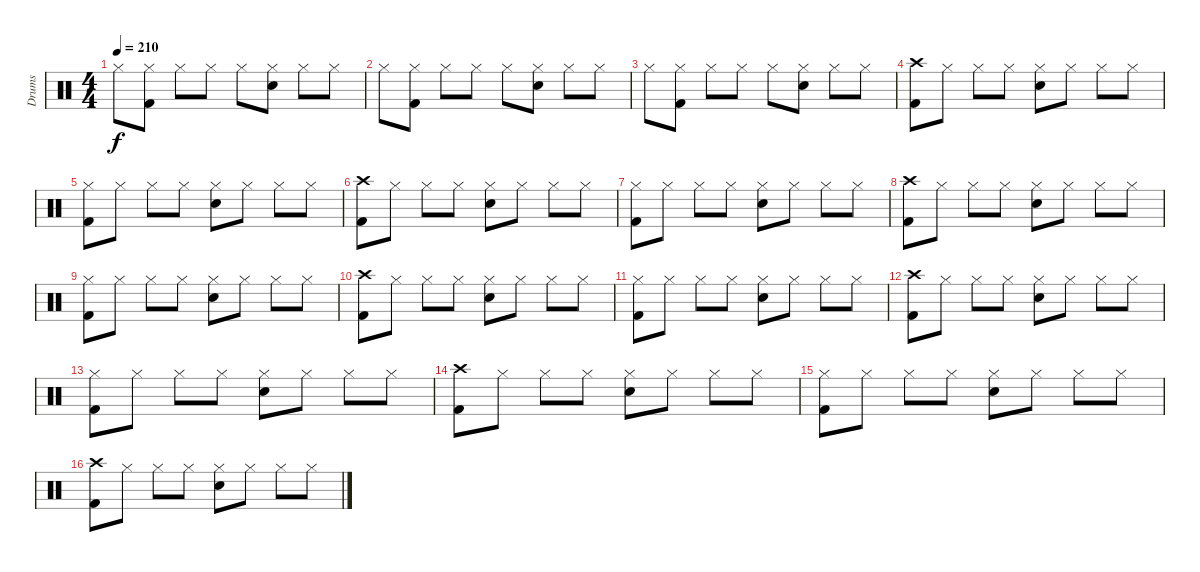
\track ("Drums" "Drums") {instrument percussion}
\staff {score}
\articulation defaults
\ts (4 4)
\tempo 210
\clef neutral
\ks c "Hi-Hat (closed)".8{dy f}
("Hi-Hat (closed)" "Kick (hit) 2").8 "Hi-Hat (closed)".8 "Hi-Hat (closed)".8 "Hi-Hat (closed)".8 ("Hi-Hat (closed)" "Electric Snare (hit)").8 "Hi-Hat (closed)".8 "Hi-Hat (closed)".8 |
"Hi-Hat (closed)".8 ("Hi-Hat (closed)" "Kick (hit) 2").8 "Hi-Hat (closed)".8 "Hi-Hat (closed)".8 "Hi-Hat (closed)".8 ("Hi-Hat (closed)" "Electric Snare (hit)").8 "Hi-Hat (closed)".8 "Hi-Hat (closed)".8 |
"Hi-Hat (closed)".8 ("Hi-Hat (closed)" "Kick (hit) 2").8 "Hi-Hat (closed)".8 "Hi-Hat (closed)".8 "Hi-Hat (closed)".8 ("Hi-Hat (closed)" "Electric Snare (hit)").8 "Hi-Hat (closed)".8 "Hi-Hat (closed)".8 |
("Crash high (hit)" "Kick (hit) 2").8 "Hi-Hat (closed)".8 "Hi-Hat (closed)".8 "Hi-Hat (closed)".8 ("Hi-Hat (closed)" "Electric Snare (hit)").8 "Hi-Hat (closed)".8 "Hi-Hat (closed)".8 "Hi-Hat (closed)".8 |
("Hi-Hat (closed)" "Kick (hit) 2").8 "Hi-Hat (closed)".8 "Hi-Hat (closed)".8 "Hi-Hat (closed)".8 ("Hi-Hat (closed)" "Electric Snare (hit)").8 "Hi-Hat (closed)".8 "Hi-Hat (closed)".8 "Hi-Hat (closed)".8 |
("Crash high (hit)" "Kick (hit) 2").8 "Hi-Hat (closed)".8 "Hi-Hat (closed)".8 "Hi-Hat (closed)".8 ("Hi-Hat (closed)" "Electric Snare (hit)").8 "Hi-Hat (closed)".8 "Hi-Hat (closed)".8 "Hi-Hat (closed)".8 |
("Hi-Hat (closed)" "Kick (hit) 2").8 "Hi-Hat (closed)".8 "Hi-Hat (closed)".8 "Hi-Hat (closed)".8 ("Hi-Hat (closed)" "Electric Snare (hit)").8 "Hi-Hat (closed)".8 "Hi-Hat (closed)".8 "Hi-Hat (closed)".8 |
("Crash high (hit)" "Kick (hit) 2").8 "Hi-Hat (closed)".8 "Hi-Hat (closed)".8 "Hi-Hat (closed)".8 ("Hi-Hat (closed)" "Electric Snare (hit)").8 "Hi-Hat (closed)".8 "Hi-Hat (closed)".8 "Hi-Hat (closed)".8 |
("Hi-Hat (closed)" "Kick (hit) 2").8 "Hi-Hat (closed)".8 "Hi-Hat (closed)".8 "Hi-Hat (closed)".8 ("Hi-Hat (closed)" "Electric Snare (hit)").8 "Hi-Hat (closed)".8 "Hi-Hat (closed)".8 "Hi-Hat (closed)".8 |
("Crash high (hit)" "Kick (hit) 2").8 "Hi-Hat (closed)".8 "Hi-Hat (closed)".8 "Hi-Hat (closed)".8 ("Hi-Hat (closed)" "Electric Snare (hit)").8 "Hi-Hat (closed)".8 "Hi-Hat (closed)".8 "Hi-Hat (closed)".8 |
("Hi-Hat (closed)" "Kick (hit) 2").8 "Hi-Hat (closed)".8 "Hi-Hat (closed)".8 "Hi-Hat (closed)".8 ("Hi-Hat (closed)" "Electric Snare (hit)").8 "Hi-Hat (closed)".8 "Hi-Hat (closed)".8 "Hi-Hat (closed)".8 |
("Crash high (hit)" "Kick (hit) 2").8 "Hi-Hat (closed)".8 "Hi-Hat (closed)".8 "Hi-Hat (closed)".8 ("Hi-Hat (closed)" "Electric Snare (hit)").8 "Hi-Hat (closed)".8 "Hi-Hat (closed)".8 "Hi-Hat (closed)".8 |
("Hi-Hat (closed)" "Kick (hit) 2").8 "Hi-Hat (closed)".8 "Hi-Hat (closed)".8 "Hi-Hat (closed)".8 ("Hi-Hat (closed)" "Electric Snare (hit)").8 "Hi-Hat (closed)".8 "Hi-Hat (closed)".8 "Hi-Hat (closed)".8 |
("Crash high (hit)" "Kick (hit) 2").8 "Hi-Hat (closed)".8 "Hi-Hat (closed)".8 "Hi-Hat (closed)".8 ("Hi-Hat (closed)" "Electric Snare (hit)").8 "Hi-Hat (closed)".8 "Hi-Hat (closed)".8 "Hi-Hat (closed)".8 |
("Hi-Hat (closed)" "Kick (hit) 2").8 "Hi-Hat (closed)".8 "Hi-Hat (closed)".8 "Hi-Hat (closed)".8 ("Hi-Hat (closed)" "Electric Snare (hit)").8 "Hi-Hat (closed)".8 "Hi-Hat (closed)".8 "Hi-Hat (closed)".8 |
("Crash high (hit)" "Kick (hit) 2").8 "Hi-Hat (closed)".8 "Hi-Hat (closed)".8 "Hi-Hat (closed)".8 ("Hi-Hat (closed)" "Electric Snare (hit)").8 "Hi-Hat (closed)".8 "Hi-Hat (closed)".8 "Hi-Hat (closed)".8
